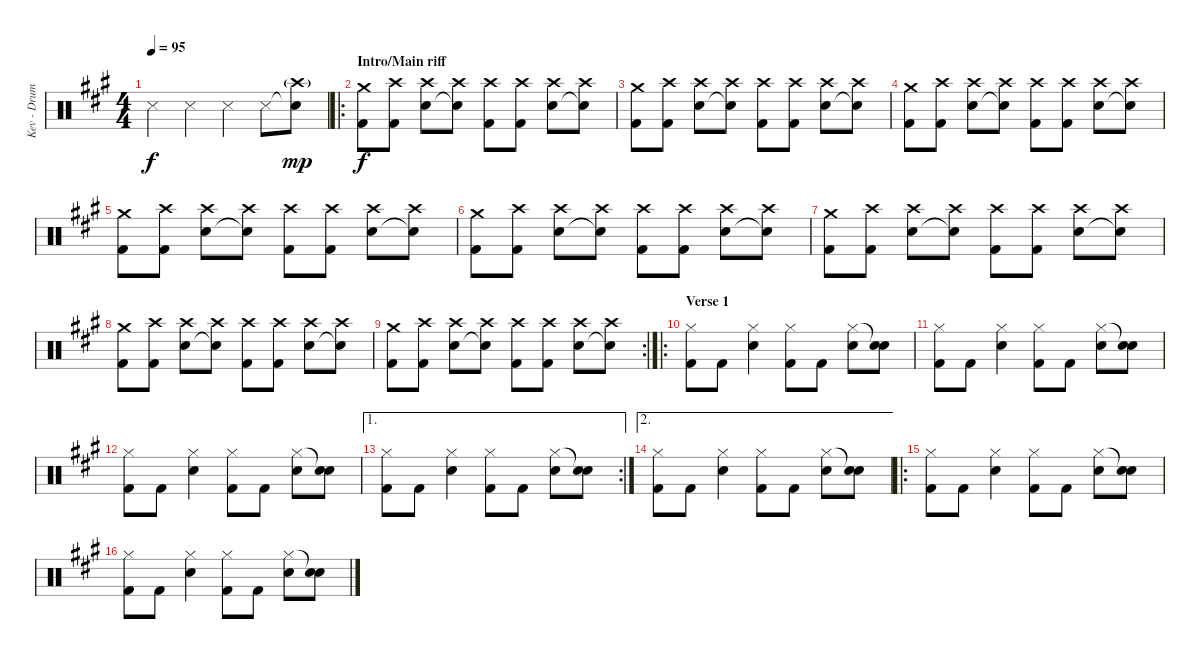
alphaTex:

\track ("Kev - Drums" "Kev - Drum") {instrument percussion}
\staff {score}
\articulation defaults
\ts (4 4)
\tempo 95
\clef neutral
\ks a "Snare (side stick) 3".4{dy f} "Snare (side stick) 3".4 "Snare (side stick) 3".4 "Snare (side stick) 3".8
("Snare (hit)"{t} "Crash high (hit)"{g}).8{dy mp} |
\ro
\section ("" "Intro/Main riff")
("Crash medium (hit)" "Kick (hit) 2").8{dy f} ("Crash high (hit)" "Kick (hit) 2").8 ("Crash high (hit)" "Snare (hit) 2").8 ("Crash high (hit)" "Snare (hit)"{t}).8 ("Crash high (hit)" "Kick (hit) 2").8 ("Crash high (hit)" "Kick (hit) 2").8 ("Crash high (hit)" "Snare (hit) 2").8 ("Crash high (hit)" "Snare (hit)"{t}).8 |
("Crash medium (hit)" "Kick (hit) 2").8 ("Crash high (hit)" "Kick (hit) 2").8 ("Crash high (hit)" "Snare (hit) 2").8 ("Crash high (hit)" "Snare (hit)"{t}).8 ("Crash high (hit)" "Kick (hit) 2").8 ("Crash high (hit)" "Kick (hit) 2").8 ("Crash high (hit)" "Snare (hit) 2").8 ("Crash high (hit)" "Snare (hit)"{t}).8 |
("Crash medium (hit)" "Kick (hit) 2").8 ("Crash high (hit)" "Kick (hit) 2").8 ("Crash high (hit)" "Snare (hit) 2").8 ("Crash high (hit)" "Snare (hit)"{t}).8 ("Crash high (hit)" "Kick (hit) 2").8 ("Crash high (hit)" "Kick (hit) 2").8 ("Crash high (hit)" "Snare (hit) 2").8 ("Crash high (hit)" "Snare (hit)"{t}).8 |
("Crash medium (hit)" "Kick (hit) 2").8 ("Crash high (hit)" "Kick (hit) 2").8 ("Crash high (hit)" "Snare (hit) 2").8 ("Crash high (hit)" "Snare (hit)"{t}).8 ("Crash high (hit)" "Kick (hit) 2").8 ("Crash high (hit)" "Kick (hit) 2").8 ("Crash high (hit)" "Snare (hit) 2").8 ("Crash high (hit)" "Snare (hit)"{t}).8 |
("Crash medium (hit)" "Kick (hit) 2").8 ("Crash high (hit)" "Kick (hit) 2").8 ("Crash high (hit)" "Snare (hit) 2").8 ("Crash high (hit)" "Snare (hit)"{t}).8 ("Crash high (hit)" "Kick (hit) 2").8 ("Crash high (hit)" "Kick (hit) 2").8 ("Crash high (hit)" "Snare (hit) 2").8 ("Crash high (hit)" "Snare (hit)"{t}).8 |
("Crash medium (hit)" "Kick (hit) 2").8 ("Crash high (hit)" "Kick (hit) 2").8 ("Crash high (hit)" "Snare (hit) 2").8 ("Crash high (hit)" "Snare (hit)"{t}).8 ("Crash high (hit)" "Kick (hit) 2").8 ("Crash high (hit)" "Kick (hit) 2").8 ("Crash high (hit)" "Snare (hit) 2").8 ("Crash high (hit)" "Snare (hit)"{t}).8 |
("Crash medium (hit)" "Kick (hit) 2").8 ("Crash high (hit)" "Kick (hit) 2").8 ("Crash high (hit)" "Snare (hit) 2").8 ("Crash high (hit)" "Snare (hit)"{t}).8 ("Crash high (hit)" "Kick (hit) 2").8 ("Crash high (hit)" "Kick (hit) 2").8 ("Crash high (hit)" "Snare (hit) 2").8 ("Crash high (hit)" "Snare (hit)"{t}).8 |
\rc 2
("Crash medium (hit)" "Kick (hit) 2").8 ("Crash high (hit)" "Kick (hit) 2").8 ("Crash high (hit)" "Snare (hit) 2").8 ("Crash high (hit)" "Snare (hit)"{t}).8 ("Crash high (hit)" "Kick (hit) 2").8 ("Crash high (hit)" "Kick (hit) 2").8 ("Crash high (hit)" "Snare (hit) 2").8 ("Crash high (hit)" "Snare (hit)"{t}).8 |
\ro
\section ("" "Verse 1")
("Hi-Hat (closed)" "Kick (hit) 2").8 "Kick (hit) 2".8 ("Hi-Hat (closed)" "Snare (hit) 2").4 ("Hi-Hat (closed)" "Kick (hit) 2").8 "Kick (hit) 2".8 ("Hi-Hat (closed)" "Snare (hit) 2").8 ("Snare (hit)"{t} "Snare (hit) 2").8 |
("Hi-Hat (closed)" "Kick (hit) 2").8 "Kick (hit) 2".8 ("Hi-Hat (closed)" "Snare (hit) 2").4 ("Hi-Hat (closed)" "Kick (hit) 2").8 "Kick (hit) 2".8 ("Hi-Hat (closed)" "Snare (hit) 2").8 ("Snare (hit)"{t} "Snare (hit) 2").8 |
("Hi-Hat (closed)" "Kick (hit) 2").8 "Kick (hit) 2".8 ("Hi-Hat (closed)" "Snare (hit) 2").4 ("Hi-Hat (closed)" "Kick (hit) 2").8 "Kick (hit) 2".8 ("Hi-Hat (closed)" "Snare (hit) 2").8 ("Snare (hit)"{t} "Snare (hit) 2").8 |
\ae 1
\rc 2
("Hi-Hat (closed)" "Kick (hit) 2").8 "Kick (hit) 2".8 ("Hi-Hat (closed)" "Snare (hit) 2").4 ("Hi-Hat (closed)" "Kick (hit) 2").8 "Kick (hit) 2".8 ("Hi-Hat (closed)" "Snare (hit) 2").8 ("Snare (hit)"{t} "Snare (hit) 2").8 |
\ae 2
("Hi-Hat (closed)" "Kick (hit) 2").8 "Kick (hit) 2".8 ("Hi-Hat (closed)" "Snare (hit) 2").4 ("Hi-Hat (closed)" "Kick (hit) 2").8 "Kick (hit) 2".8 ("Hi-Hat (closed)" "Snare (hit) 2").8 ("Snare (hit)"{t} "Snare (hit) 2").8 |
\ro
("Hi-Hat (closed)" "Kick (hit) 2").8 "Kick (hit) 2".8 ("Hi-Hat (closed)" "Snare (hit) 2").4 ("Hi-Hat (closed)" "Kick (hit) 2").8 "Kick (hit) 2".8 ("Hi-Hat (closed)" "Snare (hit) 2").8 ("Snare (hit)"{t} "Snare (hit) 2").8 |
("Hi-Hat (closed)" "Kick (hit) 2").8 "Kick (hit) 2".8 ("Hi-Hat (closed)" "Snare (hit) 2").4 ("Hi-Hat (closed)" "Kick (hit) 2").8 "Kick (hit) 2".8 ("Hi-Hat (closed)" "Snare (hit) 2").8 ("Snare (hit)"{t} "Snare (hit) 2").8
